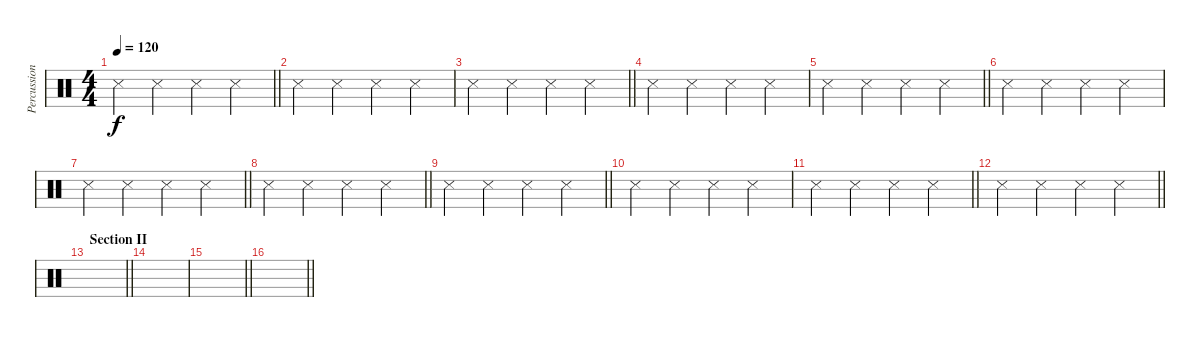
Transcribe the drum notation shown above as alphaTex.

\track ("Percussion" "Percussion") {instrument percussion}
\staff {score}
\articulation defaults
\ts (4 4)
\tempo 120
\clef neutral
\barLineRight lightlight
\ks c "Metronome (hit)".4{dy f} "Metronome (hit)".4 "Metronome (hit)".4 "Metronome (hit)".4
|
"Metronome (hit)".4 "Metronome (hit)".4 "Metronome (hit)".4 "Metronome (hit)".4 |
\barLineRight lightlight "Metronome (hit)".4 "Metronome (hit)".4 "Metronome (hit)".4 "Metronome (hit)".4
|
"Metronome (hit)".4 "Metronome (hit)".4 "Metronome (hit)".4 "Metronome (hit)".4 |
\barLineRight lightlight "Metronome (hit)".4 "Metronome (hit)".4 "Metronome (hit)".4 "Metronome (hit)".4
|
"Metronome (hit)".4 "Metronome (hit)".4 "Metronome (hit)".4 "Metronome (hit)".4 |
\barLineRight lightlight "Metronome (hit)".4 "Metronome (hit)".4 "Metronome (hit)".4 "Metronome (hit)".4
|
\barLineRight lightlight "Metronome (hit)".4 "Metronome (hit)".4 "Metronome (hit)".4 "Metronome (hit)".4
|
\barLineRight lightlight "Metronome (hit)".4 "Metronome (hit)".4 "Metronome (hit)".4 "Metronome (hit)".4
|
"Metronome (hit)".4 "Metronome (hit)".4 "Metronome (hit)".4 "Metronome (hit)".4 |
\barLineRight lightlight "Metronome (hit)".4 "Metronome (hit)".4 "Metronome (hit)".4 "Metronome (hit)".4
|
\barLineRight lightlight "Metronome (hit)".4 "Metronome (hit)".4 "Metronome (hit)".4 "Metronome (hit)".4
|
\section ("" "Section II")
\barLineRight lightlight
|
|
\barLineRight lightlight
|
\barLineRight lightlight
